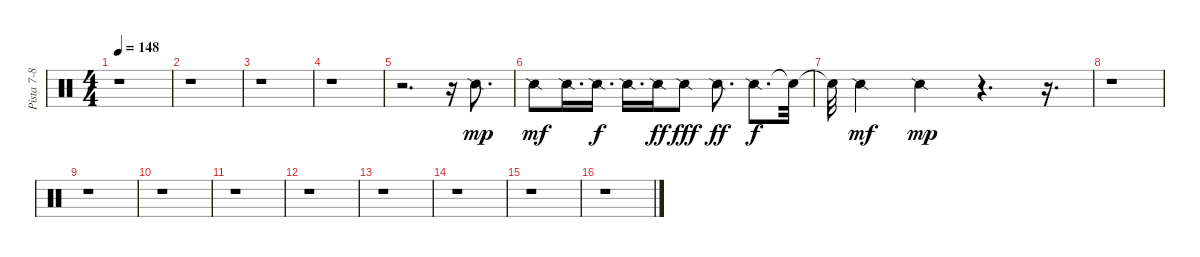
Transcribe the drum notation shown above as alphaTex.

\track ("Pista 7-8" "Pista 7-8") {instrument percussion}
\staff {score}
\articulation defaults
\ts (4 4)
\tempo 148
\clef neutral
\ks c
r.1{dy fff} |
r.1 |
r.1 |
r.1 |
r.2{d} r.16 "Snare (side stick) 2".8{d dy mp} |
"Snare (side stick) 2".8{dy mf} "Snare (side stick) 2".16{d} "Snare (side stick) 2".16{d dy f} "Snare (side stick) 2".16{d} "Snare (side stick) 2".16{dy ff} "Snare (side stick) 2".8{dy fff} "Snare (side stick) 2".8{d dy ff} "Snare (side stick) 2".8{d dy f} "Snare (hit)"{t}.32 |
"Snare (hit)"{t}.32 "Snare (side stick) 2".4{dy mf} "Snare (side stick) 2".4{dy mp} r.4{d} r.16{d} |
r.1 |
r.1 |
r.1 |
r.1 |
r.1 |
r.1 |
r.1 |
r.1 |
r.1
